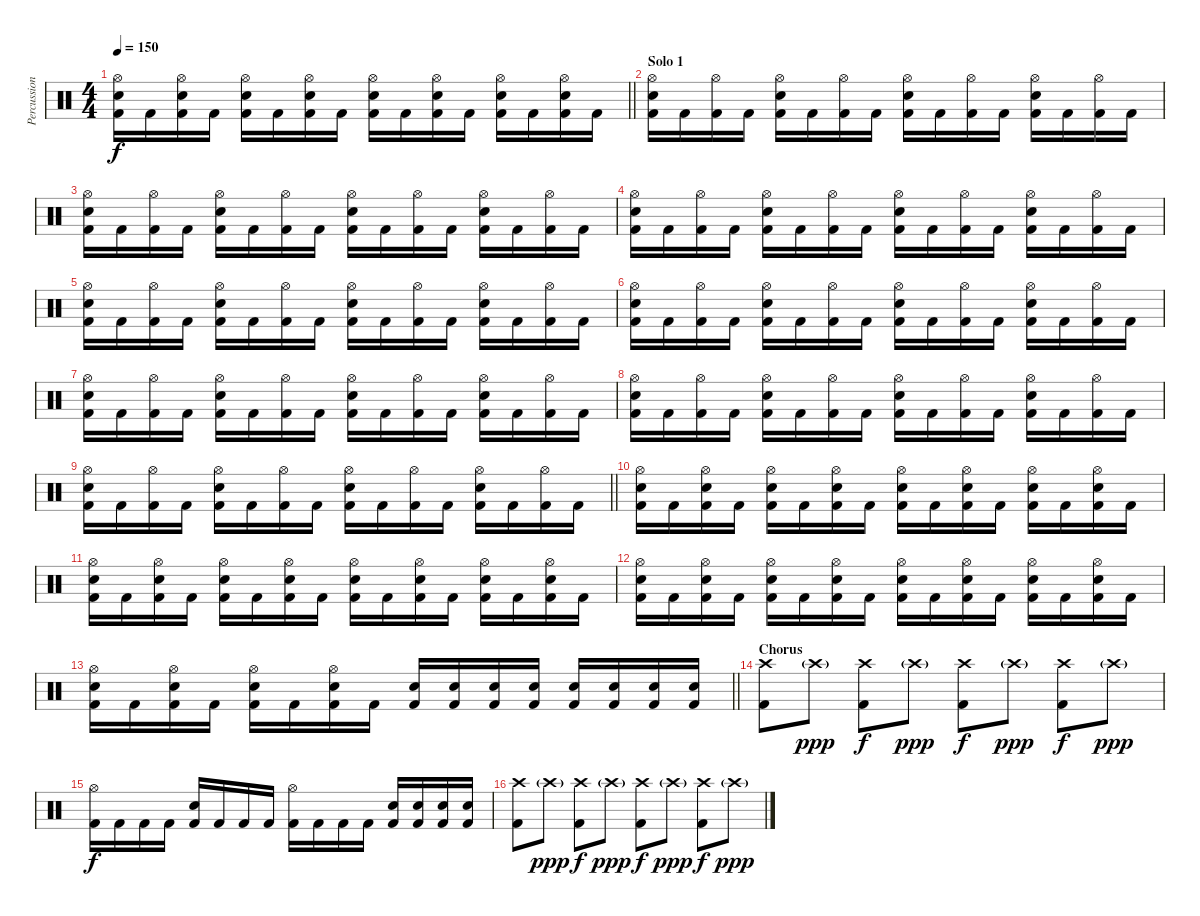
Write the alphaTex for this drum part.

\track ("Percussion" "Percussion") {instrument percussion}
\staff {score}
\articulation defaults
\ts (4 4)
\tempo 150
\clef neutral
\barLineRight lightlight
\ks c
("Hi-Hat (open)" "Electric Snare (hit)" "Kick (hit) 2").16{dy f} "Kick (hit) 2".16 ("Hi-Hat (open)" "Electric Snare (hit)" "Kick (hit) 2").16 "Kick (hit) 2".16 ("Hi-Hat (open)" "Electric Snare (hit)" "Kick (hit) 2").16 "Kick (hit) 2".16 ("Hi-Hat (open)" "Electric Snare (hit)" "Kick (hit) 2").16 "Kick (hit) 2".16 ("Hi-Hat (open)" "Electric Snare (hit)" "Kick (hit) 2").16 "Kick (hit) 2".16 ("Hi-Hat (open)" "Electric Snare (hit)" "Kick (hit) 2").16 "Kick (hit) 2".16 ("Hi-Hat (open)" "Electric Snare (hit)" "Kick (hit) 2").16 "Kick (hit) 2".16 ("Hi-Hat (open)" "Electric Snare (hit)" "Kick (hit) 2").16 "Kick (hit) 2".16 |
\section ("" "Solo 1")
("Hi-Hat (open)" "Electric Snare (hit)" "Kick (hit) 2").16 "Kick (hit) 2".16 ("Hi-Hat (open)" "Kick (hit) 2").16 "Kick (hit) 2".16 ("Hi-Hat (open)" "Electric Snare (hit)" "Kick (hit) 2").16 "Kick (hit) 2".16 ("Hi-Hat (open)" "Kick (hit) 2").16 "Kick (hit) 2".16 ("Hi-Hat (open)" "Electric Snare (hit)" "Kick (hit) 2").16 "Kick (hit) 2".16 ("Hi-Hat (open)" "Kick (hit) 2").16 "Kick (hit) 2".16 ("Hi-Hat (open)" "Electric Snare (hit)" "Kick (hit) 2").16 "Kick (hit) 2".16 ("Hi-Hat (open)" "Kick (hit) 2").16 "Kick (hit) 2".16 |
("Hi-Hat (open)" "Electric Snare (hit)" "Kick (hit) 2").16 "Kick (hit) 2".16 ("Hi-Hat (open)" "Kick (hit) 2").16 "Kick (hit) 2".16 ("Hi-Hat (open)" "Electric Snare (hit)" "Kick (hit) 2").16 "Kick (hit) 2".16 ("Hi-Hat (open)" "Kick (hit) 2").16 "Kick (hit) 2".16 ("Hi-Hat (open)" "Electric Snare (hit)" "Kick (hit) 2").16 "Kick (hit) 2".16 ("Hi-Hat (open)" "Kick (hit) 2").16 "Kick (hit) 2".16 ("Hi-Hat (open)" "Electric Snare (hit)" "Kick (hit) 2").16 "Kick (hit) 2".16 ("Hi-Hat (open)" "Kick (hit) 2").16 "Kick (hit) 2".16 |
("Hi-Hat (open)" "Electric Snare (hit)" "Kick (hit) 2").16 "Kick (hit) 2".16 ("Hi-Hat (open)" "Kick (hit) 2").16 "Kick (hit) 2".16 ("Hi-Hat (open)" "Electric Snare (hit)" "Kick (hit) 2").16 "Kick (hit) 2".16 ("Hi-Hat (open)" "Kick (hit) 2").16 "Kick (hit) 2".16 ("Hi-Hat (open)" "Electric Snare (hit)" "Kick (hit) 2").16 "Kick (hit) 2".16 ("Hi-Hat (open)" "Kick (hit) 2").16 "Kick (hit) 2".16 ("Hi-Hat (open)" "Electric Snare (hit)" "Kick (hit) 2").16 "Kick (hit) 2".16 ("Hi-Hat (open)" "Kick (hit) 2").16 "Kick (hit) 2".16 |
("Hi-Hat (open)" "Electric Snare (hit)" "Kick (hit) 2").16 "Kick (hit) 2".16 ("Hi-Hat (open)" "Kick (hit) 2").16 "Kick (hit) 2".16 ("Hi-Hat (open)" "Electric Snare (hit)" "Kick (hit) 2").16 "Kick (hit) 2".16 ("Hi-Hat (open)" "Kick (hit) 2").16 "Kick (hit) 2".16 ("Hi-Hat (open)" "Electric Snare (hit)" "Kick (hit) 2").16 "Kick (hit) 2".16 ("Hi-Hat (open)" "Kick (hit) 2").16 "Kick (hit) 2".16 ("Hi-Hat (open)" "Electric Snare (hit)" "Kick (hit) 2").16 "Kick (hit) 2".16 ("Hi-Hat (open)" "Kick (hit) 2").16 "Kick (hit) 2".16 |
("Hi-Hat (open)" "Electric Snare (hit)" "Kick (hit) 2").16 "Kick (hit) 2".16 ("Hi-Hat (open)" "Kick (hit) 2").16 "Kick (hit) 2".16 ("Hi-Hat (open)" "Electric Snare (hit)" "Kick (hit) 2").16 "Kick (hit) 2".16 ("Hi-Hat (open)" "Kick (hit) 2").16 "Kick (hit) 2".16 ("Hi-Hat (open)" "Electric Snare (hit)" "Kick (hit) 2").16 "Kick (hit) 2".16 ("Hi-Hat (open)" "Kick (hit) 2").16 "Kick (hit) 2".16 ("Hi-Hat (open)" "Electric Snare (hit)" "Kick (hit) 2").16 "Kick (hit) 2".16 ("Hi-Hat (open)" "Kick (hit) 2").16 "Kick (hit) 2".16 |
("Hi-Hat (open)" "Electric Snare (hit)" "Kick (hit) 2").16 "Kick (hit) 2".16 ("Hi-Hat (open)" "Kick (hit) 2").16 "Kick (hit) 2".16 ("Hi-Hat (open)" "Electric Snare (hit)" "Kick (hit) 2").16 "Kick (hit) 2".16 ("Hi-Hat (open)" "Kick (hit) 2").16 "Kick (hit) 2".16 ("Hi-Hat (open)" "Electric Snare (hit)" "Kick (hit) 2").16 "Kick (hit) 2".16 ("Hi-Hat (open)" "Kick (hit) 2").16 "Kick (hit) 2".16 ("Hi-Hat (open)" "Electric Snare (hit)" "Kick (hit) 2").16 "Kick (hit) 2".16 ("Hi-Hat (open)" "Kick (hit) 2").16 "Kick (hit) 2".16 |
("Hi-Hat (open)" "Electric Snare (hit)" "Kick (hit) 2").16 "Kick (hit) 2".16 ("Hi-Hat (open)" "Kick (hit) 2").16 "Kick (hit) 2".16 ("Hi-Hat (open)" "Electric Snare (hit)" "Kick (hit) 2").16 "Kick (hit) 2".16 ("Hi-Hat (open)" "Kick (hit) 2").16 "Kick (hit) 2".16 ("Hi-Hat (open)" "Electric Snare (hit)" "Kick (hit) 2").16 "Kick (hit) 2".16 ("Hi-Hat (open)" "Kick (hit) 2").16 "Kick (hit) 2".16 ("Hi-Hat (open)" "Electric Snare (hit)" "Kick (hit) 2").16 "Kick (hit) 2".16 ("Hi-Hat (open)" "Kick (hit) 2").16 "Kick (hit) 2".16 |
\barLineRight lightlight
("Hi-Hat (open)" "Electric Snare (hit)" "Kick (hit) 2").16 "Kick (hit) 2".16 ("Hi-Hat (open)" "Kick (hit) 2").16 "Kick (hit) 2".16 ("Hi-Hat (open)" "Electric Snare (hit)" "Kick (hit) 2").16 "Kick (hit) 2".16 ("Hi-Hat (open)" "Kick (hit) 2").16 "Kick (hit) 2".16 ("Hi-Hat (open)" "Electric Snare (hit)" "Kick (hit) 2").16 "Kick (hit) 2".16 ("Hi-Hat (open)" "Kick (hit) 2").16 "Kick (hit) 2".16 ("Hi-Hat (open)" "Electric Snare (hit)" "Kick (hit) 2").16 "Kick (hit) 2".16 ("Hi-Hat (open)" "Kick (hit) 2").16 "Kick (hit) 2".16 |
("Hi-Hat (open)" "Electric Snare (hit)" "Kick (hit) 2").16 "Kick (hit) 2".16 ("Hi-Hat (open)" "Electric Snare (hit)" "Kick (hit) 2").16 "Kick (hit) 2".16 ("Hi-Hat (open)" "Electric Snare (hit)" "Kick (hit) 2").16 "Kick (hit) 2".16 ("Hi-Hat (open)" "Electric Snare (hit)" "Kick (hit) 2").16 "Kick (hit) 2".16 ("Hi-Hat (open)" "Electric Snare (hit)" "Kick (hit) 2").16 "Kick (hit) 2".16 ("Hi-Hat (open)" "Electric Snare (hit)" "Kick (hit) 2").16 "Kick (hit) 2".16 ("Hi-Hat (open)" "Electric Snare (hit)" "Kick (hit) 2").16 "Kick (hit) 2".16 ("Hi-Hat (open)" "Electric Snare (hit)" "Kick (hit) 2").16 "Kick (hit) 2".16 |
("Hi-Hat (open)" "Electric Snare (hit)" "Kick (hit) 2").16 "Kick (hit) 2".16 ("Hi-Hat (open)" "Electric Snare (hit)" "Kick (hit) 2").16 "Kick (hit) 2".16 ("Hi-Hat (open)" "Electric Snare (hit)" "Kick (hit) 2").16 "Kick (hit) 2".16 ("Hi-Hat (open)" "Electric Snare (hit)" "Kick (hit) 2").16 "Kick (hit) 2".16 ("Hi-Hat (open)" "Electric Snare (hit)" "Kick (hit) 2").16 "Kick (hit) 2".16 ("Hi-Hat (open)" "Electric Snare (hit)" "Kick (hit) 2").16 "Kick (hit) 2".16 ("Hi-Hat (open)" "Electric Snare (hit)" "Kick (hit) 2").16 "Kick (hit) 2".16 ("Hi-Hat (open)" "Electric Snare (hit)" "Kick (hit) 2").16 "Kick (hit) 2".16 |
("Hi-Hat (open)" "Electric Snare (hit)" "Kick (hit) 2").16 "Kick (hit) 2".16 ("Hi-Hat (open)" "Electric Snare (hit)" "Kick (hit) 2").16 "Kick (hit) 2".16 ("Hi-Hat (open)" "Electric Snare (hit)" "Kick (hit) 2").16 "Kick (hit) 2".16 ("Hi-Hat (open)" "Electric Snare (hit)" "Kick (hit) 2").16 "Kick (hit) 2".16 ("Hi-Hat (open)" "Electric Snare (hit)" "Kick (hit) 2").16 "Kick (hit) 2".16 ("Hi-Hat (open)" "Electric Snare (hit)" "Kick (hit) 2").16 "Kick (hit) 2".16 ("Hi-Hat (open)" "Electric Snare (hit)" "Kick (hit) 2").16 "Kick (hit) 2".16 ("Hi-Hat (open)" "Electric Snare (hit)" "Kick (hit) 2").16 "Kick (hit) 2".16 |
\barLineRight lightlight
("Hi-Hat (open)" "Electric Snare (hit)" "Kick (hit) 2").16 "Kick (hit) 2".16 ("Hi-Hat (open)" "Electric Snare (hit)" "Kick (hit) 2").16 "Kick (hit) 2".16 ("Hi-Hat (open)" "Electric Snare (hit)" "Kick (hit) 2").16 "Kick (hit) 2".16 ("Hi-Hat (open)" "Electric Snare (hit)" "Kick (hit) 2").16 "Kick (hit) 2".16 ("Electric Snare (hit)" "Kick (hit) 2").16 ("Electric Snare (hit)" "Kick (hit) 2").16 ("Electric Snare (hit)" "Kick (hit) 2").16 ("Electric Snare (hit)" "Kick (hit) 2").16 ("Electric Snare (hit)" "Kick (hit) 2").16 ("Electric Snare (hit)" "Kick (hit) 2").16 ("Electric Snare (hit)" "Kick (hit) 2").16 ("Electric Snare (hit)" "Kick (hit) 2").16 |
\section ("" "Chorus")
("Crash high (hit)" "Kick (hit) 2").8 "Crash high (hit)"{g}.8{dy ppp} ("Crash high (hit)" "Kick (hit) 2").8{dy f} "Crash high (hit)"{g}.8{dy ppp} ("Crash high (hit)" "Kick (hit) 2").8{dy f} "Crash high (hit)"{g}.8{dy ppp} ("Crash high (hit)" "Kick (hit) 2").8{dy f} "Crash high (hit)"{g}.8{dy ppp} |
("Hi-Hat (open)" "Kick (hit) 2").16{dy f} "Kick (hit) 2".16 "Kick (hit) 2".16 "Kick (hit) 2".16 ("Electric Snare (hit)" "Kick (hit) 2").16 "Kick (hit) 2".16 "Kick (hit) 2".16 "Kick (hit) 2".16 ("Hi-Hat (open)" "Kick (hit) 2").16 "Kick (hit) 2".16 "Kick (hit) 2".16 "Kick (hit) 2".16 ("Electric Snare (hit)" "Kick (hit) 2").16 ("Electric Snare (hit)" "Kick (hit) 2").16 ("Electric Snare (hit)" "Kick (hit) 2").16 ("Electric Snare (hit)" "Kick (hit) 2").16 |
("Crash high (hit)" "Kick (hit) 2").8 "Crash high (hit)"{g}.8{dy ppp} ("Crash high (hit)" "Kick (hit) 2").8{dy f} "Crash high (hit)"{g}.8{dy ppp} ("Crash high (hit)" "Kick (hit) 2").8{dy f} "Crash high (hit)"{g}.8{dy ppp} ("Crash high (hit)" "Kick (hit) 2").8{dy f} "Crash high (hit)"{g}.8{dy ppp}
